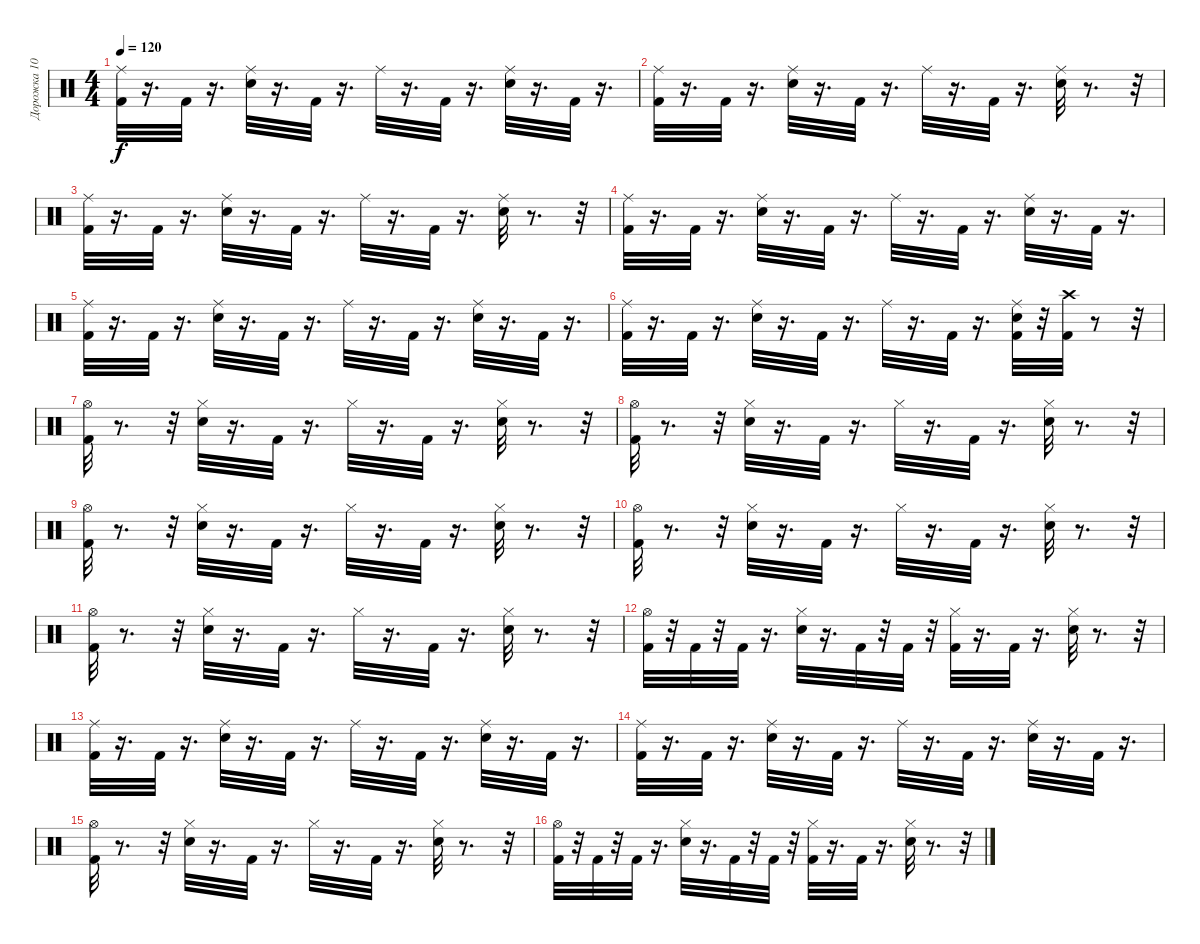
\track ("Дорожка 10" "Дорожка 10") {instrument percussion}
\staff {score}
\articulation defaults
\ts (4 4)
\tempo 120
\clef neutral
\ks c
("Kick (hit) 2" "Ride (middle)").32{dy f} r.16{d} "Kick (hit) 2".32 r.16{d} ("Snare (hit) 2" "Ride (middle)").32 r.16{d} "Kick (hit) 2".32 r.16{d} "Ride (middle)".32 r.16{d} "Kick (hit) 2".32 r.16{d} ("Snare (hit) 2" "Ride (middle)").32 r.16{d} "Kick (hit) 2".32 r.16{d} |
("Kick (hit) 2" "Ride (middle)").32 r.16{d} "Kick (hit) 2".32 r.16{d} ("Snare (hit) 2" "Ride (middle)").32 r.16{d} "Kick (hit) 2".32 r.16{d} "Ride (middle)".32 r.16{d} "Kick (hit) 2".32 r.16{d} ("Snare (hit) 2" "Ride (middle)").32 r.8{d} r.32 |
("Kick (hit) 2" "Ride (middle)").32 r.16{d} "Kick (hit) 2".32 r.16{d} ("Snare (hit) 2" "Ride (middle)").32 r.16{d} "Kick (hit) 2".32 r.16{d} "Ride (middle)".32 r.16{d} "Kick (hit) 2".32 r.16{d} ("Snare (hit) 2" "Ride (middle)").32 r.8{d} r.32 |
("Kick (hit) 2" "Ride (middle)").32 r.16{d} "Kick (hit) 2".32 r.16{d} ("Snare (hit) 2" "Ride (middle)").32 r.16{d} "Kick (hit) 2".32 r.16{d} "Ride (middle)".32 r.16{d} "Kick (hit) 2".32 r.16{d} ("Snare (hit) 2" "Ride (middle)").32 r.16{d} "Kick (hit) 2".32 r.16{d} |
("Kick (hit) 2" "Ride (middle)").32 r.16{d} "Kick (hit) 2".32 r.16{d} ("Snare (hit) 2" "Ride (middle)").32 r.16{d} "Kick (hit) 2".32 r.16{d} "Ride (middle)".32 r.16{d} "Kick (hit) 2".32 r.16{d} ("Snare (hit) 2" "Ride (middle)").32 r.16{d} "Kick (hit) 2".32 r.16{d} |
("Kick (hit) 2" "Ride (middle)").32 r.16{d} "Kick (hit) 2".32 r.16{d} ("Ride (middle)" "Snare (hit) 2").32 r.16{d} "Kick (hit) 2".32 r.16{d} "Ride (middle)".32 r.16{d} "Kick (hit) 2".32 r.16{d} ("Snare (hit) 2" "Kick (hit) 2" "Ride (middle)").32 r.32 ("Crash high (hit)" "Kick (hit) 2").32 r.8 r.32 |
("Hi-Hat (open)" "Kick (hit) 2").32 r.8{d} r.32 ("Hi-Hat (closed)" "Snare (hit) 2").32 r.16{d} "Kick (hit) 2".32 r.16{d} "Hi-Hat (closed)".32 r.16{d} "Kick (hit) 2".32 r.16{d} ("Hi-Hat (closed)" "Snare (hit) 2").32 r.8{d} r.32 |
("Hi-Hat (open)" "Kick (hit) 2").32 r.8{d} r.32 ("Hi-Hat (closed)" "Snare (hit) 2").32 r.16{d} "Kick (hit) 2".32 r.16{d} "Hi-Hat (closed)".32 r.16{d} "Kick (hit) 2".32 r.16{d} ("Hi-Hat (closed)" "Snare (hit) 2").32 r.8{d} r.32 |
("Hi-Hat (open)" "Kick (hit) 2").32 r.8{d} r.32 ("Snare (hit) 2" "Hi-Hat (closed)").32 r.16{d} "Kick (hit) 2".32 r.16{d} "Hi-Hat (closed)".32 r.16{d} "Kick (hit) 2".32 r.16{d} ("Hi-Hat (closed)" "Snare (hit) 2").32 r.8{d} r.32 |
("Kick (hit) 2" "Hi-Hat (open)").32 r.8{d} r.32 ("Hi-Hat (closed)" "Snare (hit) 2").32 r.16{d} "Kick (hit) 2".32 r.16{d} "Hi-Hat (closed)".32 r.16{d} "Kick (hit) 2".32 r.16{d} ("Snare (hit) 2" "Hi-Hat (closed)").32 r.8{d} r.32 |
("Hi-Hat (open)" "Kick (hit) 2").32 r.8{d} r.32 ("Hi-Hat (closed)" "Snare (hit) 2").32 r.16{d} "Kick (hit) 2".32 r.16{d} "Hi-Hat (closed)".32 r.16{d} "Kick (hit) 2".32 r.16{d} ("Hi-Hat (closed)" "Snare (hit) 2").32 r.8{d} r.32 |
("Hi-Hat (open)" "Kick (hit) 2").32 r.32 "Kick (hit) 2".32 r.32 "Kick (hit) 2".32 r.16{d} ("Snare (hit) 2" "Hi-Hat (closed)").32 r.16{d} "Kick (hit) 2".32 r.32 "Kick (hit) 2".32 r.32 ("Kick (hit) 2" "Hi-Hat (closed)").32 r.16{d} "Kick (hit) 2".32 r.16{d} ("Hi-Hat (closed)" "Snare (hit) 2").32 r.8{d} r.32 |
("Ride (middle)" "Kick (hit) 2").32 r.16{d} "Kick (hit) 2".32 r.16{d} ("Snare (hit) 2" "Ride (middle)").32 r.16{d} "Kick (hit) 2".32 r.16{d} "Ride (middle)".32 r.16{d} "Kick (hit) 2".32 r.16{d} ("Snare (hit) 2" "Ride (middle)").32 r.16{d} "Kick (hit) 2".32 r.16{d} |
("Kick (hit) 2" "Ride (middle)").32 r.16{d} "Kick (hit) 2".32 r.16{d} ("Snare (hit) 2" "Ride (middle)").32 r.16{d} "Kick (hit) 2".32 r.16{d} "Ride (middle)".32 r.16{d} "Kick (hit) 2".32 r.16{d} ("Snare (hit) 2" "Ride (middle)").32 r.16{d} "Kick (hit) 2".32 r.16{d} |
("Hi-Hat (open)" "Kick (hit) 2").32 r.8{d} r.32 ("Hi-Hat (closed)" "Snare (hit) 2").32 r.16{d} "Kick (hit) 2".32 r.16{d} "Hi-Hat (closed)".32 r.16{d} "Kick (hit) 2".32 r.16{d} ("Hi-Hat (closed)" "Snare (hit) 2").32 r.8{d} r.32 |
("Hi-Hat (open)" "Kick (hit) 2").32 r.32 "Kick (hit) 2".32 r.32 "Kick (hit) 2".32 r.16{d} ("Snare (hit) 2" "Hi-Hat (closed)").32 r.16{d} "Kick (hit) 2".32 r.32 "Kick (hit) 2".32 r.32 ("Kick (hit) 2" "Hi-Hat (closed)").32 r.16{d} "Kick (hit) 2".32 r.16{d} ("Hi-Hat (closed)" "Snare (hit) 2").32 r.8{d} r.32
